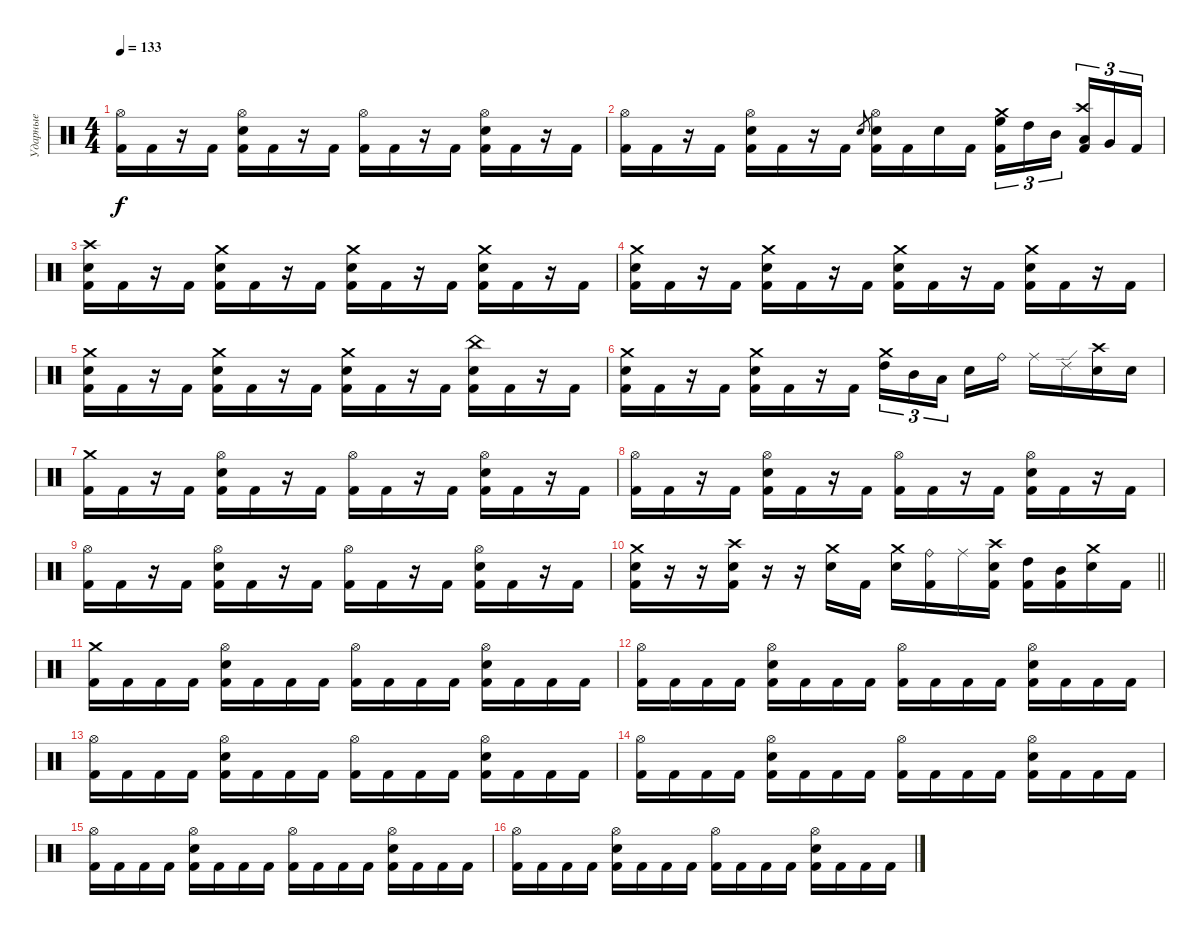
\track ("Ударные" "Ударные") {instrument percussion}
\staff {score}
\articulation defaults
\ts (4 4)
\tempo 133
\clef neutral
\ks c
("Hi-Hat (open)" "Kick (hit) 2").16{dy f} "Kick (hit) 2".16 r.16 "Kick (hit) 2".16 ("Hi-Hat (open)" "Snare (hit) 2" "Kick (hit) 2").16 "Kick (hit) 2".16 r.16 "Kick (hit) 2".16 ("Hi-Hat (open)" "Kick (hit) 2").16 "Kick (hit) 2".16 r.16 "Kick (hit) 2".16 ("Hi-Hat (open)" "Snare (hit) 2" "Kick (hit) 2").16 "Kick (hit) 2".16 r.16 "Kick (hit) 2".16 |
("Hi-Hat (open)" "Kick (hit) 2").16 "Kick (hit) 2".16 r.16 "Kick (hit) 2".16 ("Hi-Hat (open)" "Snare (hit) 2" "Kick (hit) 2").16 "Kick (hit) 2".16 r.16 "Kick (hit) 2".16 "Electric Snare (hit)".8{gr} ("Hi-Hat (open)" "Snare (hit) 2" "Kick (hit) 2").16 "Kick (hit) 2".16 "Snare (hit) 2".16 "Kick (hit) 2".16 ("Crash medium (hit)" "High Floor Tom (hit)" "Kick (hit) 2").16{tu (3 2)} "High Tom (hit)".16{tu (3 2)} "Mid Tom (hit)".16{tu (3 2) beam splitsecondary} ("Crash high (hit)" "Low Tom (hit)" "Kick (hit) 2").16{tu (3 2)} "Very Low Tom (hit)".16{tu (3 2)} "Kick (hit) 2".16{tu (3 2)} |
("Crash high (hit)" "Snare (hit) 2" "Kick (hit) 2").16 "Kick (hit) 2".16 r.16 "Kick (hit) 2".16 ("Crash medium (hit)" "Snare (hit) 2" "Kick (hit) 2").16 "Kick (hit) 2".16 r.16 "Kick (hit) 2".16 ("Crash medium (hit)" "Snare (hit) 2" "Kick (hit) 2").16 "Kick (hit) 2".16 r.16 "Kick (hit) 2".16 ("Crash medium (hit)" "Snare (hit) 2" "Kick (hit) 2").16 "Kick (hit) 2".16 r.16 "Kick (hit) 2".16 |
("Crash medium (hit)" "Snare (hit) 2" "Kick (hit) 2").16 "Kick (hit) 2".16 r.16 "Kick (hit) 2".16 ("Crash medium (hit)" "Snare (hit) 2" "Kick (hit) 2").16 "Kick (hit) 2".16 r.16 "Kick (hit) 2".16 ("Crash medium (hit)" "Snare (hit) 2" "Kick (hit) 2").16 "Kick (hit) 2".16 r.16 "Kick (hit) 2".16 ("Crash medium (hit)" "Snare (hit) 2" "Kick (hit) 2").16 "Kick (hit) 2".16 r.16 "Kick (hit) 2".16 |
("Crash medium (hit)" "Snare (hit) 2" "Kick (hit) 2").16 "Kick (hit) 2".16 r.16 "Kick (hit) 2".16 ("Crash medium (hit)" "Snare (hit) 2" "Kick (hit) 2").16 "Kick (hit) 2".16 r.16 "Kick (hit) 2".16 ("Crash medium (hit)" "Snare (hit) 2" "Kick (hit) 2").16 "Kick (hit) 2".16 r.16 "Kick (hit) 2".16 ("China (hit)" "Snare (hit) 2" "Kick (hit) 2").16 "Kick (hit) 2".16 r.16 "Kick (hit) 2".16 |
("Crash medium (hit)" "Snare (hit) 2" "Kick (hit) 2").16 "Kick (hit) 2".16 r.16 "Kick (hit) 2".16 ("Crash medium (hit)" "Snare (hit) 2" "Kick (hit) 2").16 "Kick (hit) 2".16 r.16 "Kick (hit) 2".16 ("Crash medium (hit)" "High Tom (hit)").16{tu (3 2)} "Mid Tom (hit)".16{tu (3 2)} "Low Tom (hit)".16{tu (3 2) beam splitsecondary} "Snare (hit) 2".16 "Ride (bell)".16 "Ride (middle)".16 "Ride (edge) 2".16 ("Crash high (hit)" "Snare (hit) 2").16 "Snare (hit) 2".16 |
("Crash medium (hit)" "Kick (hit) 2").16 "Kick (hit) 2".16 r.16 "Kick (hit) 2".16 ("Hi-Hat (open)" "Snare (hit) 2" "Kick (hit) 2").16 "Kick (hit) 2".16 r.16 "Kick (hit) 2".16 ("Hi-Hat (open)" "Kick (hit) 2").16 "Kick (hit) 2".16 r.16 "Kick (hit) 2".16 ("Hi-Hat (open)" "Snare (hit) 2" "Kick (hit) 2").16 "Kick (hit) 2".16 r.16 "Kick (hit) 2".16 |
("Hi-Hat (open)" "Kick (hit) 2").16 "Kick (hit) 2".16 r.16 "Kick (hit) 2".16 ("Hi-Hat (open)" "Snare (hit) 2" "Kick (hit) 2").16 "Kick (hit) 2".16 r.16 "Kick (hit) 2".16 ("Hi-Hat (open)" "Kick (hit) 2").16 "Kick (hit) 2".16 r.16 "Kick (hit) 2".16 ("Hi-Hat (open)" "Snare (hit) 2" "Kick (hit) 2").16 "Kick (hit) 2".16 r.16 "Kick (hit) 2".16 |
("Hi-Hat (open)" "Kick (hit) 2").16 "Kick (hit) 2".16 r.16 "Kick (hit) 2".16 ("Hi-Hat (open)" "Snare (hit) 2" "Kick (hit) 2").16 "Kick (hit) 2".16 r.16 "Kick (hit) 2".16 ("Hi-Hat (open)" "Kick (hit) 2").16 "Kick (hit) 2".16 r.16 "Kick (hit) 2".16 ("Hi-Hat (open)" "Snare (hit) 2" "Kick (hit) 2").16 "Kick (hit) 2".16 r.16 "Kick (hit) 2".16 |
\barLineRight lightlight
("Crash medium (hit)" "Snare (hit) 2" "Kick (hit) 2").16 r.16 r.16 ("Crash high (hit)" "Snare (hit) 2" "Kick (hit) 2").16 r.16 r.16 ("Crash medium (hit)" "Snare (hit) 2").16 "Kick (hit) 2".16 ("Crash medium (hit)" "Snare (hit) 2").16 ("Ride (bell)" "Kick (hit) 2").16 "Ride (middle)".16 ("Crash high (hit)" "Snare (hit) 2" "Kick (hit) 2").16 ("High Tom (hit)" "Kick (hit) 2").16 ("Mid Tom (hit)" "Kick (hit) 2").16 ("Crash medium (hit)" "Snare (hit) 2").16 "Kick (hit) 2".16 |
("Crash medium (hit)" "Kick (hit) 2").16 "Kick (hit) 2".16 "Kick (hit) 2".16 "Kick (hit) 2".16 ("Hi-Hat (open)" "Snare (hit) 2" "Kick (hit) 2").16 "Kick (hit) 2".16 "Kick (hit) 2".16 "Kick (hit) 2".16 ("Hi-Hat (open)" "Kick (hit) 2").16 "Kick (hit) 2".16 "Kick (hit) 2".16 "Kick (hit) 2".16 ("Hi-Hat (open)" "Snare (hit) 2" "Kick (hit) 2").16 "Kick (hit) 2".16 "Kick (hit) 2".16 "Kick (hit) 2".16 |
("Hi-Hat (open)" "Kick (hit) 2").16 "Kick (hit) 2".16 "Kick (hit) 2".16 "Kick (hit) 2".16 ("Hi-Hat (open)" "Snare (hit) 2" "Kick (hit) 2").16 "Kick (hit) 2".16 "Kick (hit) 2".16 "Kick (hit) 2".16 ("Hi-Hat (open)" "Kick (hit) 2").16 "Kick (hit) 2".16 "Kick (hit) 2".16 "Kick (hit) 2".16 ("Hi-Hat (open)" "Snare (hit) 2" "Kick (hit) 2").16 "Kick (hit) 2".16 "Kick (hit) 2".16 "Kick (hit) 2".16 |
("Hi-Hat (open)" "Kick (hit) 2").16 "Kick (hit) 2".16 "Kick (hit) 2".16 "Kick (hit) 2".16 ("Hi-Hat (open)" "Snare (hit) 2" "Kick (hit) 2").16 "Kick (hit) 2".16 "Kick (hit) 2".16 "Kick (hit) 2".16 ("Hi-Hat (open)" "Kick (hit) 2").16 "Kick (hit) 2".16 "Kick (hit) 2".16 "Kick (hit) 2".16 ("Hi-Hat (open)" "Snare (hit) 2" "Kick (hit) 2").16 "Kick (hit) 2".16 "Kick (hit) 2".16 "Kick (hit) 2".16 |
("Hi-Hat (open)" "Kick (hit) 2").16 "Kick (hit) 2".16 "Kick (hit) 2".16 "Kick (hit) 2".16 ("Hi-Hat (open)" "Snare (hit) 2" "Kick (hit) 2").16 "Kick (hit) 2".16 "Kick (hit) 2".16 "Kick (hit) 2".16 ("Hi-Hat (open)" "Kick (hit) 2").16 "Kick (hit) 2".16 "Kick (hit) 2".16 "Kick (hit) 2".16 ("Hi-Hat (open)" "Snare (hit) 2" "Kick (hit) 2").16 "Kick (hit) 2".16 "Kick (hit) 2".16 "Kick (hit) 2".16 |
("Hi-Hat (open)" "Kick (hit) 2").16 "Kick (hit) 2".16 "Kick (hit) 2".16 "Kick (hit) 2".16 ("Hi-Hat (open)" "Snare (hit) 2" "Kick (hit) 2").16 "Kick (hit) 2".16 "Kick (hit) 2".16 "Kick (hit) 2".16 ("Hi-Hat (open)" "Kick (hit) 2").16 "Kick (hit) 2".16 "Kick (hit) 2".16 "Kick (hit) 2".16 ("Hi-Hat (open)" "Snare (hit) 2" "Kick (hit) 2").16 "Kick (hit) 2".16 "Kick (hit) 2".16 "Kick (hit) 2".16 |
("Hi-Hat (open)" "Kick (hit) 2").16 "Kick (hit) 2".16 "Kick (hit) 2".16 "Kick (hit) 2".16 ("Hi-Hat (open)" "Snare (hit) 2" "Kick (hit) 2").16 "Kick (hit) 2".16 "Kick (hit) 2".16 "Kick (hit) 2".16 ("Hi-Hat (open)" "Kick (hit) 2").16 "Kick (hit) 2".16 "Kick (hit) 2".16 "Kick (hit) 2".16 ("Hi-Hat (open)" "Snare (hit) 2" "Kick (hit) 2").16 "Kick (hit) 2".16 "Kick (hit) 2".16 "Kick (hit) 2".16
